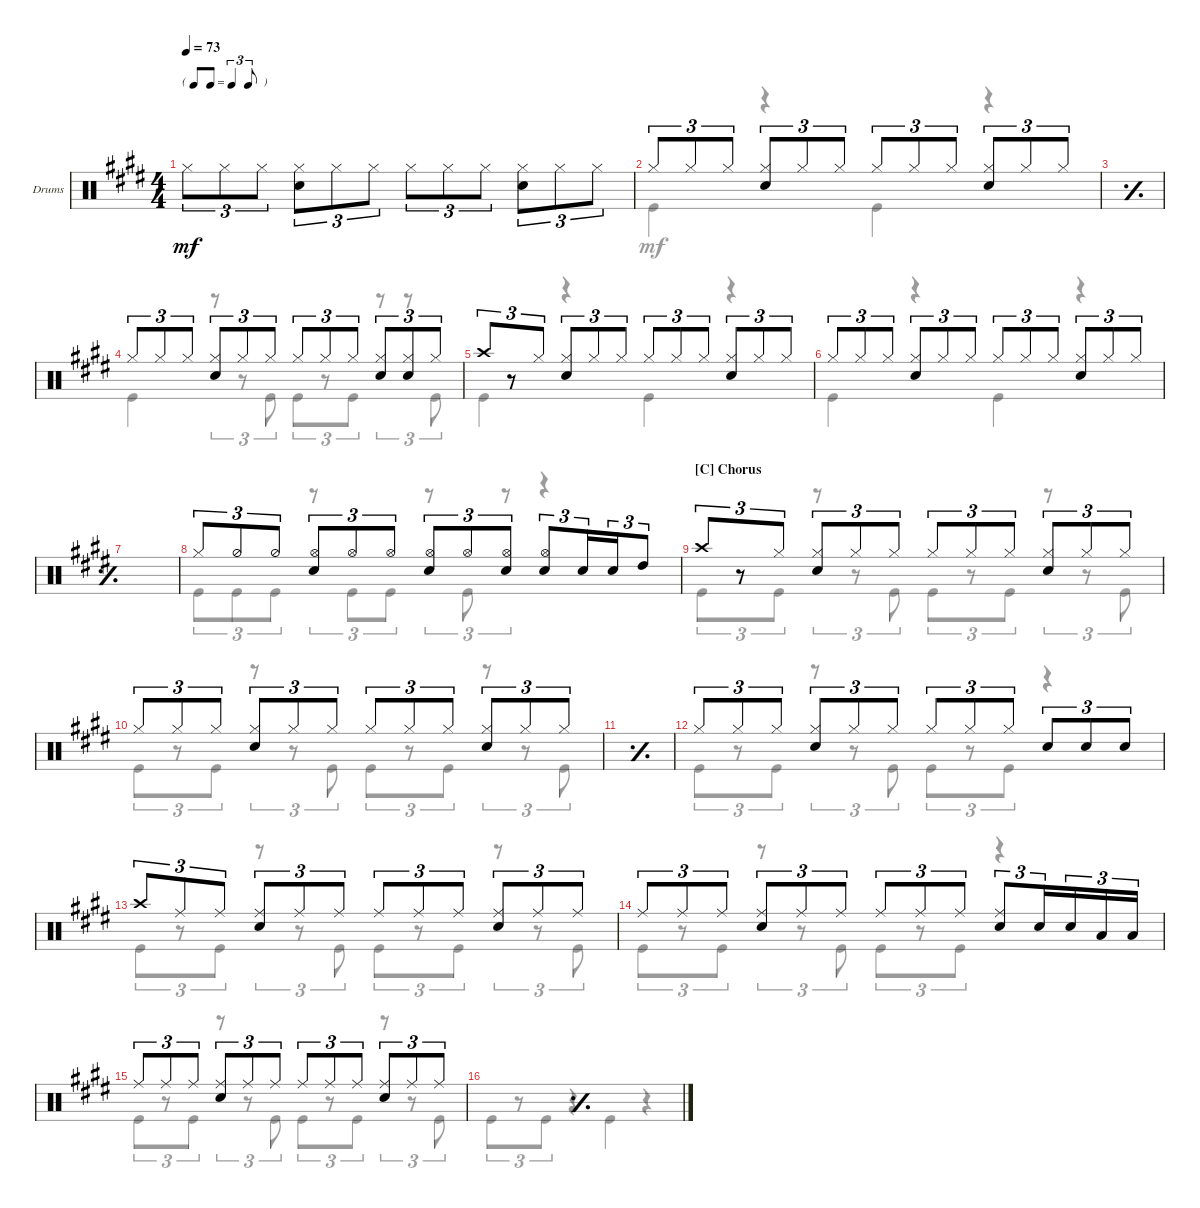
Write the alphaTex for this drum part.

\defaultSystemsLayout 4
\bracketExtendMode groupsimilarinstruments
\firstSystemTrackNameOrientation horizontal
\otherSystemsTrackNameOrientation horizontal
\track ("Drumkit" "Drums") {instrument percussion}
\staff {score}
\articulation defaults
\voice
\ts (4 4)
\tf triplet8th
\tempo 73
\clef neutral
\ks e "Hi-Hat (closed)".8{tu (3 2) dy mf} "Hi-Hat (closed)".8{tu (3 2)} "Hi-Hat (closed)".8{tu (3 2)}
("Hi-Hat (closed)" "Snare (hit) 2").8{tu (3 2)} "Hi-Hat (closed)".8{tu (3 2)} "Hi-Hat (closed)".8{tu (3 2)} "Hi-Hat (closed)".8{tu (3 2)} "Hi-Hat (closed)".8{tu (3 2)} "Hi-Hat (closed)".8{tu (3 2)} ("Hi-Hat (closed)" "Snare (hit) 2").8{tu (3 2)} "Hi-Hat (closed)".8{tu (3 2)} "Hi-Hat (closed)".8{tu (3 2)} |
"Hi-Hat (closed)".8{tu (3 2)} "Hi-Hat (closed)".8{tu (3 2)} "Hi-Hat (closed)".8{tu (3 2)} ("Hi-Hat (closed)" "Snare (hit) 2").8{tu (3 2)} "Hi-Hat (closed)".8{tu (3 2)} "Hi-Hat (closed)".8{tu (3 2)} "Hi-Hat (closed)".8{tu (3 2)} "Hi-Hat (closed)".8{tu (3 2)} "Hi-Hat (closed)".8{tu (3 2)} ("Hi-Hat (closed)" "Snare (hit) 2").8{tu (3 2)} "Hi-Hat (closed)".8{tu (3 2)} "Hi-Hat (closed)".8{tu (3 2)} |
\simile simple
|
\simile none "Hi-Hat (closed)".8{tu (3 2)} "Hi-Hat (closed)".8{tu (3 2)} "Hi-Hat (closed)".8{tu (3 2)}
("Hi-Hat (closed)" "Snare (hit) 2").8{tu (3 2)} "Hi-Hat (closed)".8{tu (3 2)} "Hi-Hat (closed)".8{tu (3 2)} "Hi-Hat (closed)".8{tu (3 2)} "Hi-Hat (closed)".8{tu (3 2)} "Hi-Hat (closed)".8{tu (3 2)} ("Hi-Hat (closed)" "Snare (hit) 2").8{tu (3 2)} ("Hi-Hat (closed)" "Snare (hit) 2").8{tu (3 2)} "Hi-Hat (closed)".8{tu (3 2)} |
"Crash high (hit)".8{tu (3 2)} r.8{tu (3 2)} "Hi-Hat (closed)".8{tu (3 2)} ("Hi-Hat (closed)" "Snare (hit) 2").8{tu (3 2)} "Hi-Hat (closed)".8{tu (3 2)} "Hi-Hat (closed)".8{tu (3 2)} "Hi-Hat (closed)".8{tu (3 2)} "Hi-Hat (closed)".8{tu (3 2)} "Hi-Hat (closed)".8{tu (3 2)} ("Hi-Hat (closed)" "Snare (hit) 2").8{tu (3 2)} "Hi-Hat (closed)".8{tu (3 2)} "Hi-Hat (closed)".8{tu (3 2)} |
"Hi-Hat (closed)".8{tu (3 2)} "Hi-Hat (closed)".8{tu (3 2)} "Hi-Hat (closed)".8{tu (3 2)} ("Hi-Hat (closed)" "Snare (hit) 2").8{tu (3 2)} "Hi-Hat (closed)".8{tu (3 2)} "Hi-Hat (closed)".8{tu (3 2)} "Hi-Hat (closed)".8{tu (3 2)} "Hi-Hat (closed)".8{tu (3 2)} "Hi-Hat (closed)".8{tu (3 2)} ("Hi-Hat (closed)" "Snare (hit) 2").8{tu (3 2)} "Hi-Hat (closed)".8{tu (3 2)} "Hi-Hat (closed)".8{tu (3 2)} |
\simile simple
|
\simile none "Hi-Hat (closed)".8{tu (3 2)} "Hi-Hat (half)".8{tu (3 2)} "Hi-Hat (half)".8{tu (3 2)}
("Hi-Hat (open)" "Snare (hit) 2").8{tu (3 2)} "Hi-Hat (open)".8{tu (3 2)} "Hi-Hat (open)".8{tu (3 2)} ("Hi-Hat (open)" "Snare (hit) 2").8{tu (3 2)} "Hi-Hat (open)".8{tu (3 2)} ("Snare (hit) 2" "Hi-Hat (open)").8{tu (3 2)} ("Hi-Hat (open)" "Snare (hit) 2").8{tu (3 2)} "Snare (hit) 2".16{tu (3 2) beam merge} "Snare (hit) 2".16{tu (3 2)} "High Tom (hit)".8{tu (3 2)} |
\section ("C" "Chorus")
"Crash high (hit)".8{tu (3 2)} r.8{tu (3 2)} "Hi-Hat (closed)".8{tu (3 2)} ("Hi-Hat (closed)" "Snare (hit) 2").8{tu (3 2)} "Hi-Hat (closed)".8{tu (3 2)} "Hi-Hat (closed)".8{tu (3 2)} "Hi-Hat (closed)".8{tu (3 2)} "Hi-Hat (closed)".8{tu (3 2)} "Hi-Hat (closed)".8{tu (3 2)} ("Hi-Hat (closed)" "Snare (hit) 2").8{tu (3 2)} "Hi-Hat (closed)".8{tu (3 2)} "Hi-Hat (closed)".8{tu (3 2)} |
"Hi-Hat (closed)".8{tu (3 2)} "Hi-Hat (closed)".8{tu (3 2)} "Hi-Hat (closed)".8{tu (3 2)} ("Hi-Hat (closed)" "Snare (hit) 2").8{tu (3 2)} "Hi-Hat (closed)".8{tu (3 2)} "Hi-Hat (closed)".8{tu (3 2)} "Hi-Hat (closed)".8{tu (3 2)} "Hi-Hat (closed)".8{tu (3 2)} "Hi-Hat (closed)".8{tu (3 2)} ("Hi-Hat (closed)" "Snare (hit) 2").8{tu (3 2)} "Hi-Hat (closed)".8{tu (3 2)} "Hi-Hat (closed)".8{tu (3 2)} |
\simile simple
|
\simile none "Hi-Hat (closed)".8{tu (3 2)} "Hi-Hat (closed)".8{tu (3 2)} "Hi-Hat (closed)".8{tu (3 2)}
("Hi-Hat (closed)" "Snare (hit) 2").8{tu (3 2)} "Hi-Hat (closed)".8{tu (3 2)} "Hi-Hat (closed)".8{tu (3 2)} "Hi-Hat (closed)".8{tu (3 2)} "Hi-Hat (closed)".8{tu (3 2)} "Hi-Hat (closed)".8{tu (3 2)} "Snare (hit) 2".8{tu (3 2)} "Snare (hit) 2".8{tu (3 2)} "Snare (hit) 2".8{tu (3 2)} |
"Crash high (hit)".8{tu (3 2)} "Ride (middle)".8{tu (3 2)} "Ride (middle)".8{tu (3 2)} ("Ride (middle)" "Snare (hit) 2").8{tu (3 2)} "Ride (middle)".8{tu (3 2)} "Ride (middle)".8{tu (3 2)} "Ride (middle)".8{tu (3 2)} "Ride (middle)".8{tu (3 2)} "Ride (middle)".8{tu (3 2)} ("Ride (middle)" "Snare (hit) 2").8{tu (3 2)} "Ride (middle)".8{tu (3 2)} "Ride (middle)".8{tu (3 2)} |
"Ride (middle)".8{tu (3 2)} "Ride (middle)".8{tu (3 2)} "Ride (middle)".8{tu (3 2)} ("Ride (middle)" "Snare (hit) 2").8{tu (3 2)} "Ride (middle)".8{tu (3 2)} "Ride (middle)".8{tu (3 2)} "Ride (middle)".8{tu (3 2)} "Ride (middle)".8{tu (3 2)} "Ride (middle)".8{tu (3 2)} ("Ride (middle)" "Snare (hit) 2").8{tu (3 2) beam merge} "Snare (hit) 2".16{tu (3 2) beam merge} "Snare (hit) 2".16{tu (3 2) beam merge} "Low Tom (hit)".16{tu (3 2)} "Low Tom (hit)".16{tu (3 2)} |
"Ride (middle)".8{tu (3 2)} "Ride (middle)".8{tu (3 2)} "Ride (middle)".8{tu (3 2)} ("Ride (middle)" "Snare (hit) 2").8{tu (3 2)} "Ride (middle)".8{tu (3 2)} "Ride (middle)".8{tu (3 2)} "Ride (middle)".8{tu (3 2)} "Ride (middle)".8{tu (3 2)} "Ride (middle)".8{tu (3 2)} ("Ride (middle)" "Snare (hit) 2").8{tu (3 2)} "Ride (middle)".8{tu (3 2)} "Ride (middle)".8{tu (3 2)} |
\simile simple
\voice
\clef neutral
\ottava regular
\simile none
\ks e "Kick (hit)".8{tu (3 2) dy mf}
r.8{tu (3 2)} "Kick (hit)".8{tu (3 2)} r.4 "Kick (hit)".4 r.4 |
"Kick (hit)".4 r.4 "Kick (hit)".4 r.4 |
\simile simple
|
\simile none "Kick (hit)".4
r.8{tu (3 2)} r.8{tu (3 2)} "Kick (hit)".8{tu (3 2)} "Kick (hit)".8{tu (3 2)} r.8{tu (3 2)} "Kick (hit)".8{tu (3 2)} r.8{tu (3 2)} r.8{tu (3 2)} "Kick (hit)".8{tu (3 2)} |
"Kick (hit)".4 r.4 "Kick (hit)".4 r.4 |
"Kick (hit)".4 r.4 "Kick (hit)".4 r.4 |
\simile simple
|
\simile none "Kick (hit)".8{tu (3 2)} "Kick (hit)".8{tu (3 2)} "Kick (hit)".8{tu (3 2)}
r.8{tu (3 2)} "Kick (hit)".8{tu (3 2)} "Kick (hit)".8{tu (3 2)} r.8{tu (3 2)} "Kick (hit)".8{tu (3 2)} r.8{tu (3 2)} r.4 |
"Kick (hit)".8{tu (3 2)} r.8{tu (3 2)} "Kick (hit)".8{tu (3 2)} r.8{tu (3 2)} r.8{tu (3 2)} "Kick (hit)".8{tu (3 2)} "Kick (hit)".8{tu (3 2)} r.8{tu (3 2)} "Kick (hit)".8{tu (3 2)} r.8{tu (3 2)} r.8{tu (3 2)} "Kick (hit)".8{tu (3 2)} |
"Kick (hit)".8{tu (3 2)} r.8{tu (3 2)} "Kick (hit)".8{tu (3 2)} r.8{tu (3 2)} r.8{tu (3 2)} "Kick (hit)".8{tu (3 2)} "Kick (hit)".8{tu (3 2)} r.8{tu (3 2)} "Kick (hit)".8{tu (3 2)} r.8{tu (3 2)} r.8{tu (3 2)} "Kick (hit)".8{tu (3 2)} |
\simile simple
|
\simile none "Kick (hit)".8{tu (3 2)}
r.8{tu (3 2)} "Kick (hit)".8{tu (3 2)} r.8{tu (3 2)} r.8{tu (3 2)} "Kick (hit)".8{tu (3 2)} "Kick (hit)".8{tu (3 2)} r.8{tu (3 2)} "Kick (hit)".8{tu (3 2)} r.4 |
"Kick (hit)".8{tu (3 2)} r.8{tu (3 2)} "Kick (hit)".8{tu (3 2)} r.8{tu (3 2)} r.8{tu (3 2)} "Kick (hit)".8{tu (3 2)} "Kick (hit)".8{tu (3 2)} r.8{tu (3 2)} "Kick (hit)".8{tu (3 2)} r.8{tu (3 2)} r.8{tu (3 2)} "Kick (hit)".8{tu (3 2)} |
"Kick (hit)".8{tu (3 2)} r.8{tu (3 2)} "Kick (hit)".8{tu (3 2)} r.8{tu (3 2)} r.8{tu (3 2)} "Kick (hit)".8{tu (3 2)} "Kick (hit)".8{tu (3 2)} r.8{tu (3 2)} "Kick (hit)".8{tu (3 2)} r.4 |
"Kick (hit)".8{tu (3 2)} r.8{tu (3 2)} "Kick (hit)".8{tu (3 2)} r.8{tu (3 2)} r.8{tu (3 2)} "Kick (hit)".8{tu (3 2)} "Kick (hit)".8{tu (3 2)} r.8{tu (3 2)} "Kick (hit)".8{tu (3 2)} r.8{tu (3 2)} r.8{tu (3 2)} "Kick (hit)".8{tu (3 2)} |
\simile simple
